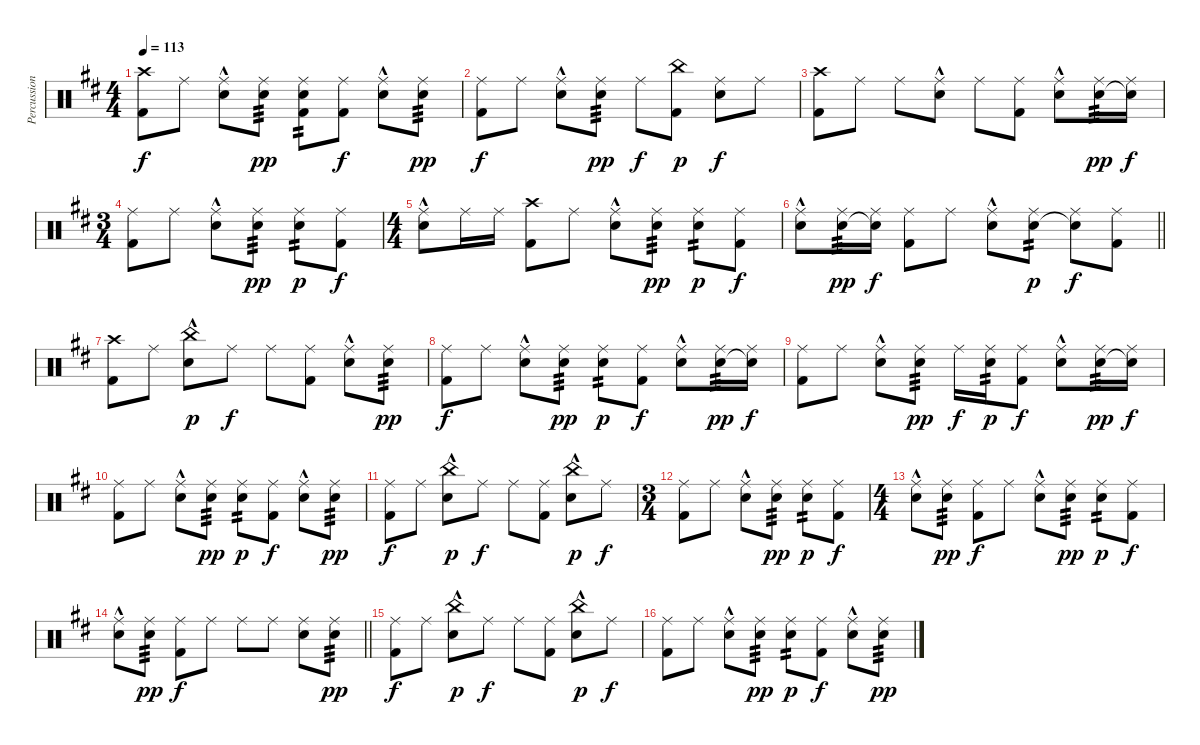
\track ("Percussion" "Percussion") {instrument percussion}
\staff {score}
\articulation defaults
\ts (4 4)
\tempo 113
\clef neutral
\ks bminor
("Crash high (hit)" "Kick (hit) 2").8{dy f} "Ride (middle)".8 ("Ride (middle)" "Snare (hit) 2"{hac}).8 ("Ride (middle)" "Snare (hit) 2").8{tp 3 dy pp} ("Ride (middle)" "Snare (hit) 2" "Kick (hit) 2").8{tp 2} ("Ride (middle)" "Kick (hit) 2").8{dy f} ("Ride (middle)" "Snare (hit) 2"{hac}).8 ("Ride (middle)" "Snare (hit) 2").8{tp 3 dy pp} |
("Ride (middle)" "Kick (hit) 2").8{dy f} "Ride (middle)".8 ("Ride (middle)" "Snare (hit) 2"{hac}).8 ("Ride (middle)" "Snare (hit) 2").8{tp 3 dy pp} "Ride (middle)".8{dy f} ("China (hit)" "Kick (hit) 2").8{dy p} ("Ride (middle)" "Snare (hit) 2").8{dy f} "Ride (middle)".8 |
("Crash high (hit)" "Kick (hit) 2").8 "Ride (middle)".8 "Ride (middle)".8 ("Ride (middle)" "Snare (hit) 2"{hac}).8 "Ride (middle)".8 ("Ride (middle)" "Kick (hit) 2").8 ("Ride (middle)" "Snare (hit) 2"{hac}).8 ("Ride (middle)" "Snare (hit) 2").16{tp 3 dy pp} ("Ride (middle)" "Snare (hit)"{t}).16{dy f} |
\ts (3 4)
("Ride (middle)" "Kick (hit) 2").8 "Ride (middle)".8 ("Ride (middle)" "Snare (hit) 2"{hac}).8 ("Ride (middle)" "Snare (hit) 2").8{tp 3 dy pp} ("Ride (middle)" "Snare (hit) 2").8{tp 2 dy p} ("Ride (middle)" "Kick (hit) 2").8{dy f} |
\ts (4 4)
("Ride (middle)" "Snare (hit) 2"{hac}).8 "Ride (middle)".16 "Ride (middle)".16 ("Crash high (hit)" "Kick (hit) 2").8 "Ride (middle)".8 ("Ride (middle)" "Snare (hit) 2"{hac}).8 ("Ride (middle)" "Snare (hit) 2").8{tp 3 dy pp} ("Ride (middle)" "Snare (hit) 2").8{tp 2 dy p} ("Ride (middle)" "Kick (hit) 2").8{dy f} |
\barLineRight lightlight
("Ride (middle)" "Snare (hit) 2"{hac}).8 ("Ride (middle)" "Snare (hit) 2").16{tp 3 dy pp} ("Ride (middle)" "Snare (hit)"{t}).16{dy f} ("Ride (middle)" "Kick (hit) 2").8 "Ride (middle)".8 ("Ride (middle)" "Snare (hit) 2"{hac}).8 ("Ride (middle)" "Snare (hit) 2").8{tp 2 dy p} ("Ride (middle)" "Snare (hit) 2"{t}).8{dy f} ("Ride (middle)" "Kick (hit) 2").8 |
\section ("" "")
("Crash high (hit)" "Kick (hit) 2").8 "Ride (middle)".8 ("China (hit)" "Snare (hit) 2"{hac}).8{dy p} "Ride (middle)".8{dy f} "Ride (middle)".8 ("Ride (middle)" "Kick (hit) 2").8 ("Ride (middle)" "Snare (hit) 2"{hac}).8 ("Ride (middle)" "Snare (hit) 2").8{tp 3 dy pp} |
("Ride (middle)" "Kick (hit) 2").8{dy f} "Ride (middle)".8 ("Ride (middle)" "Snare (hit) 2"{hac}).8 ("Ride (middle)" "Snare (hit) 2").8{tp 3 dy pp} ("Ride (middle)" "Snare (hit) 2").8{tp 2 dy p} ("Ride (middle)" "Kick (hit) 2").8{dy f} ("Ride (middle)" "Snare (hit) 2"{hac}).8 ("Ride (middle)" "Snare (hit) 2").16{tp 3 dy pp} ("Ride (middle)" "Snare (hit)"{t}).16{dy f} |
("Ride (middle)" "Kick (hit) 2").8 "Ride (middle)".8 ("Ride (middle)" "Snare (hit) 2"{hac}).8 ("Ride (middle)" "Snare (hit) 2").8{tp 3 dy pp} "Ride (middle)".16{dy f} ("Ride (middle)" "Snare (hit) 2").16{tp 2 dy p} ("Ride (middle)" "Kick (hit) 2").8{dy f} ("Ride (middle)" "Snare (hit) 2"{hac}).8 ("Ride (middle)" "Snare (hit) 2").16{tp 3 dy pp} ("Ride (middle)" "Snare (hit)"{t}).16{dy f} |
("Ride (middle)" "Kick (hit) 2").8 "Ride (middle)".8 ("Ride (middle)" "Snare (hit) 2"{hac}).8 ("Ride (middle)" "Snare (hit) 2").8{tp 3 dy pp} ("Ride (middle)" "Snare (hit) 2").8{tp 2 dy p} ("Ride (middle)" "Kick (hit) 2").8{dy f} ("Ride (middle)" "Snare (hit) 2"{hac}).8 ("Ride (middle)" "Snare (hit) 2").8{tp 3 dy pp} |
("Ride (middle)" "Kick (hit) 2").8{dy f} "Ride (middle)".8 ("China (hit)" "Snare (hit) 2"{hac}).8{dy p} "Ride (middle)".8{dy f} "Ride (middle)".8 ("Ride (middle)" "Kick (hit) 2").8 ("China (hit)" "Snare (hit) 2"{hac}).8{dy p} "Ride (middle)".8{dy f} |
\ts (3 4)
("Ride (middle)" "Kick (hit) 2").8 "Ride (middle)".8 ("Ride (middle)" "Snare (hit) 2"{hac}).8 ("Ride (middle)" "Snare (hit) 2").8{tp 3 dy pp} ("Ride (middle)" "Snare (hit) 2").8{tp 2 dy p} ("Ride (middle)" "Kick (hit) 2").8{dy f} |
\ts (4 4)
("Ride (middle)" "Snare (hit) 2"{hac}).8 ("Ride (middle)" "Snare (hit) 2").8{tp 3 dy pp} ("Ride (middle)" "Kick (hit) 2").8{dy f} "Ride (middle)".8 ("Ride (middle)" "Snare (hit) 2"{hac}).8 ("Ride (middle)" "Snare (hit) 2").8{tp 3 dy pp} ("Ride (middle)" "Snare (hit) 2").8{tp 2 dy p} ("Ride (middle)" "Kick (hit) 2").8{dy f} |
\barLineRight lightlight
("Ride (middle)" "Snare (hit) 2"{hac}).8 ("Ride (middle)" "Snare (hit) 2").8{tp 3 dy pp} ("Ride (middle)" "Kick (hit) 2").8{dy f} "Ride (middle)".8 "Ride (middle)".8 "Ride (middle)".8 ("Ride (middle)" "Snare (hit) 2").8 ("Ride (middle)" "Snare (hit) 2").8{tp 3 dy pp} |
\section ("" "")
("Ride (middle)" "Kick (hit) 2").8{dy f} "Ride (middle)".8 ("China (hit)" "Snare (hit) 2"{hac}).8{dy p} "Ride (middle)".8{dy f} "Ride (middle)".8 ("Ride (middle)" "Kick (hit) 2").8 ("China (hit)" "Snare (hit) 2"{hac}).8{dy p} "Ride (middle)".8{dy f} |
("Ride (middle)" "Kick (hit) 2").8 "Ride (middle)".8 ("Ride (middle)" "Snare (hit) 2"{hac}).8 ("Ride (middle)" "Snare (hit) 2").8{tp 3 dy pp} ("Ride (middle)" "Snare (hit) 2").8{tp 2 dy p} ("Ride (middle)" "Kick (hit) 2").8{dy f} ("Ride (middle)" "Snare (hit) 2"{hac}).8 ("Ride (middle)" "Snare (hit) 2").8{tp 3 dy pp}
